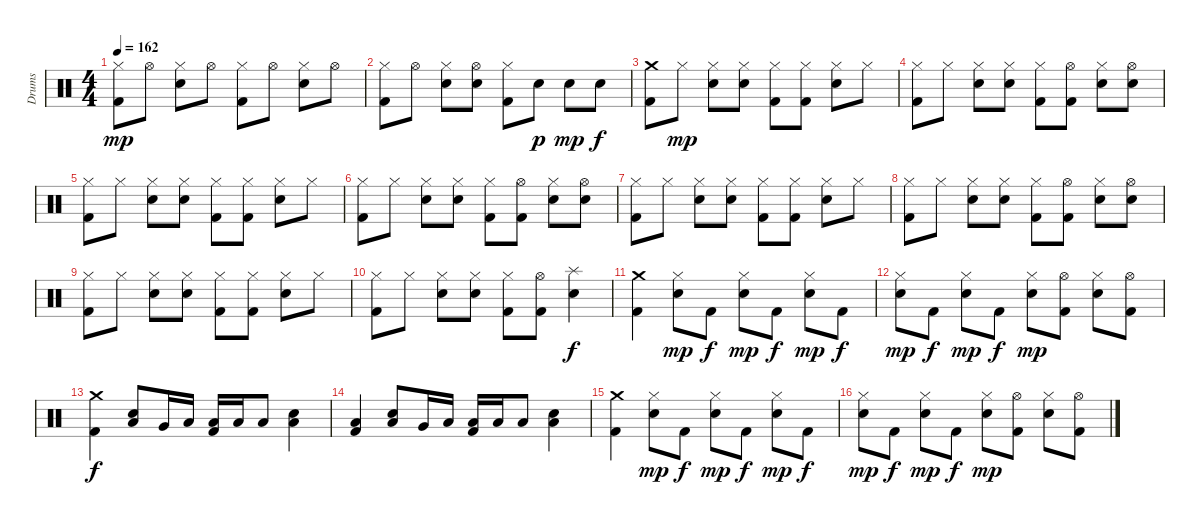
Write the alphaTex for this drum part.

\track ("Drums" "Drums") {instrument percussion}
\staff {score}
\articulation defaults
\ts (4 4)
\tempo 162
\clef neutral
\ks c
("Hi-Hat (closed)" "Kick (hit) 2").8{dy mp} "Hi-Hat (open)".8 ("Hi-Hat (closed)" "Snare (hit) 2").8 "Hi-Hat (open)".8 ("Hi-Hat (closed)" "Kick (hit) 2").8 "Hi-Hat (open)".8 ("Hi-Hat (closed)" "Snare (hit) 2").8 "Hi-Hat (open)".8 |
("Hi-Hat (closed)" "Kick (hit) 2").8 "Hi-Hat (open)".8 ("Hi-Hat (closed)" "Snare (hit) 2").8 ("Hi-Hat (open)" "Snare (hit) 2").8 ("Hi-Hat (closed)" "Kick (hit) 2").8 "Snare (hit) 2".8{dy p} "Snare (hit) 2".8{dy mp} "Snare (hit) 2".8{dy f} |
("Crash medium (hit)" "Kick (hit) 2").8 "Hi-Hat (closed)".8{dy mp} ("Hi-Hat (closed)" "Snare (hit) 2").8 ("Hi-Hat (closed)" "Snare (hit) 2").8 ("Hi-Hat (closed)" "Kick (hit) 2").8 ("Hi-Hat (closed)" "Kick (hit) 2").8 ("Hi-Hat (closed)" "Snare (hit) 2").8 "Hi-Hat (closed)".8 |
("Hi-Hat (closed)" "Kick (hit) 2").8 "Hi-Hat (closed)".8 ("Hi-Hat (closed)" "Snare (hit) 2").8 ("Hi-Hat (closed)" "Snare (hit) 2").8 ("Hi-Hat (closed)" "Kick (hit) 2").8 ("Hi-Hat (open)" "Kick (hit) 2").8 ("Hi-Hat (closed)" "Snare (hit) 2").8 ("Hi-Hat (open)" "Snare (hit) 2").8 |
("Hi-Hat (closed)" "Kick (hit) 2").8 "Hi-Hat (closed)".8 ("Hi-Hat (closed)" "Snare (hit) 2").8 ("Hi-Hat (closed)" "Snare (hit) 2").8 ("Hi-Hat (closed)" "Kick (hit) 2").8 ("Hi-Hat (closed)" "Kick (hit) 2").8 ("Hi-Hat (closed)" "Snare (hit) 2").8 "Hi-Hat (closed)".8 |
("Hi-Hat (closed)" "Kick (hit) 2").8 "Hi-Hat (closed)".8 ("Hi-Hat (closed)" "Snare (hit) 2").8 ("Hi-Hat (closed)" "Snare (hit) 2").8 ("Hi-Hat (closed)" "Kick (hit) 2").8 ("Hi-Hat (open)" "Kick (hit) 2").8 ("Hi-Hat (closed)" "Snare (hit) 2").8 ("Hi-Hat (open)" "Snare (hit) 2").8 |
("Hi-Hat (closed)" "Kick (hit) 2").8 "Hi-Hat (closed)".8 ("Hi-Hat (closed)" "Snare (hit) 2").8 ("Hi-Hat (closed)" "Snare (hit) 2").8 ("Hi-Hat (closed)" "Kick (hit) 2").8 ("Hi-Hat (closed)" "Kick (hit) 2").8 ("Hi-Hat (closed)" "Snare (hit) 2").8 "Hi-Hat (closed)".8 |
("Hi-Hat (closed)" "Kick (hit) 2").8 "Hi-Hat (closed)".8 ("Hi-Hat (closed)" "Snare (hit) 2").8 ("Hi-Hat (closed)" "Snare (hit) 2").8 ("Hi-Hat (closed)" "Kick (hit) 2").8 ("Hi-Hat (open)" "Kick (hit) 2").8 ("Hi-Hat (closed)" "Snare (hit) 2").8 ("Hi-Hat (open)" "Snare (hit) 2").8 |
("Hi-Hat (closed)" "Kick (hit) 2").8 "Hi-Hat (closed)".8 ("Hi-Hat (closed)" "Snare (hit) 2").8 ("Hi-Hat (closed)" "Snare (hit) 2").8 ("Hi-Hat (closed)" "Kick (hit) 2").8 ("Hi-Hat (closed)" "Kick (hit) 2").8 ("Hi-Hat (closed)" "Snare (hit) 2").8 "Hi-Hat (closed)".8 |
("Hi-Hat (closed)" "Kick (hit) 2").8 "Hi-Hat (closed)".8 ("Hi-Hat (closed)" "Snare (hit) 2").8 ("Hi-Hat (closed)" "Snare (hit) 2").8 ("Hi-Hat (closed)" "Kick (hit) 2").8 ("Hi-Hat (open)" "Kick (hit) 2").8 ("Splash (hit)" "Snare (hit) 2").4{dy f} |
("Crash medium (hit)" "Kick (hit) 2").4 ("Hi-Hat (closed)" "Snare (hit) 2").8{dy mp} "Kick (hit) 2".8{dy f} ("Hi-Hat (closed)" "Snare (hit) 2").8{dy mp} "Kick (hit) 2".8{dy f} ("Hi-Hat (closed)" "Snare (hit) 2").8{dy mp} "Kick (hit) 2".8{dy f} |
("Hi-Hat (closed)" "Snare (hit) 2").8{dy mp} "Kick (hit) 2".8{dy f} ("Hi-Hat (closed)" "Snare (hit) 2").8{dy mp} "Kick (hit) 2".8{dy f} ("Hi-Hat (closed)" "Snare (hit) 2").8{dy mp} ("Hi-Hat (open)" "Kick (hit) 2").8 ("Hi-Hat (closed)" "Snare (hit) 2").8 ("Hi-Hat (open)" "Kick (hit) 2").8 |
("Crash medium (hit)" "Kick (hit) 2").4{dy f} ("Low Floor Tom (hit)" "Snare (hit) 2").8 "Very Low Tom (hit)".16 "Low Floor Tom (hit)".16 ("Low Floor Tom (hit)" "Kick (hit) 2").16 "Low Floor Tom (hit)".16 "Low Floor Tom (hit)".8 ("Low Floor Tom (hit)" "Snare (hit) 2").4 |
("Low Floor Tom (hit)" "Kick (hit) 2").4 ("Low Floor Tom (hit)" "Snare (hit) 2").8 "Very Low Tom (hit)".16 "Low Floor Tom (hit)".16 ("Low Floor Tom (hit)" "Kick (hit) 2").16 "Low Floor Tom (hit)".16 "Low Floor Tom (hit)".8 ("Low Floor Tom (hit)" "Snare (hit) 2").4 |
("Crash medium (hit)" "Kick (hit) 2").4 ("Hi-Hat (closed)" "Snare (hit) 2").8{dy mp} "Kick (hit) 2".8{dy f} ("Hi-Hat (closed)" "Snare (hit) 2").8{dy mp} "Kick (hit) 2".8{dy f} ("Hi-Hat (closed)" "Snare (hit) 2").8{dy mp} "Kick (hit) 2".8{dy f} |
("Hi-Hat (closed)" "Snare (hit) 2").8{dy mp} "Kick (hit) 2".8{dy f} ("Hi-Hat (closed)" "Snare (hit) 2").8{dy mp} "Kick (hit) 2".8{dy f} ("Hi-Hat (closed)" "Snare (hit) 2").8{dy mp} ("Hi-Hat (open)" "Kick (hit) 2").8 ("Hi-Hat (closed)" "Snare (hit) 2").8 ("Hi-Hat (open)" "Kick (hit) 2").8
